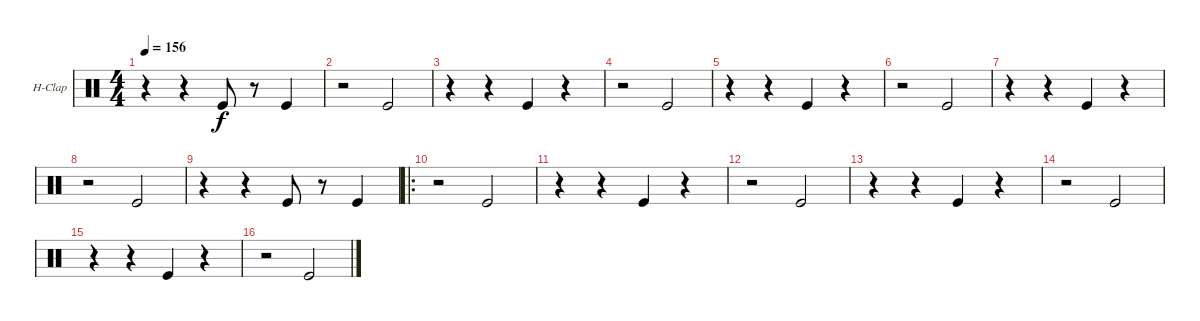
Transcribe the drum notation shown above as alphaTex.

\defaultSystemsLayout 4
\bracketExtendMode groupsimilarinstruments
\firstSystemTrackNameOrientation horizontal
\otherSystemsTrackNameOrientation horizontal
\track ("Hand Clap" "H-Clap") {instrument percussion}
\staff {score}
\articulation defaults
\ts (4 4)
\tempo 156
\clef neutral
\ks c
r.4{dy f} r.4 "Kick (hit)".8 r.8 "Kick (hit)".4 |
r.2 "Kick (hit)".2 |
r.4 r.4 "Kick (hit)".4 r.4 |
r.2 "Kick (hit)".2 |
r.4 r.4 "Kick (hit)".4 r.4 |
r.2 "Kick (hit)".2 |
r.4 r.4 "Kick (hit)".4 r.4 |
r.2 "Kick (hit)".2 |
r.4 r.4 "Kick (hit)".8 r.8 "Kick (hit)".4 |
\ro
r.2 "Kick (hit)".2 |
r.4 r.4 "Kick (hit)".4 r.4 |
r.2 "Kick (hit)".2 |
r.4 r.4 "Kick (hit)".4 r.4 |
r.2 "Kick (hit)".2 |
r.4 r.4 "Kick (hit)".4 r.4 |
r.2 "Kick (hit)".2
